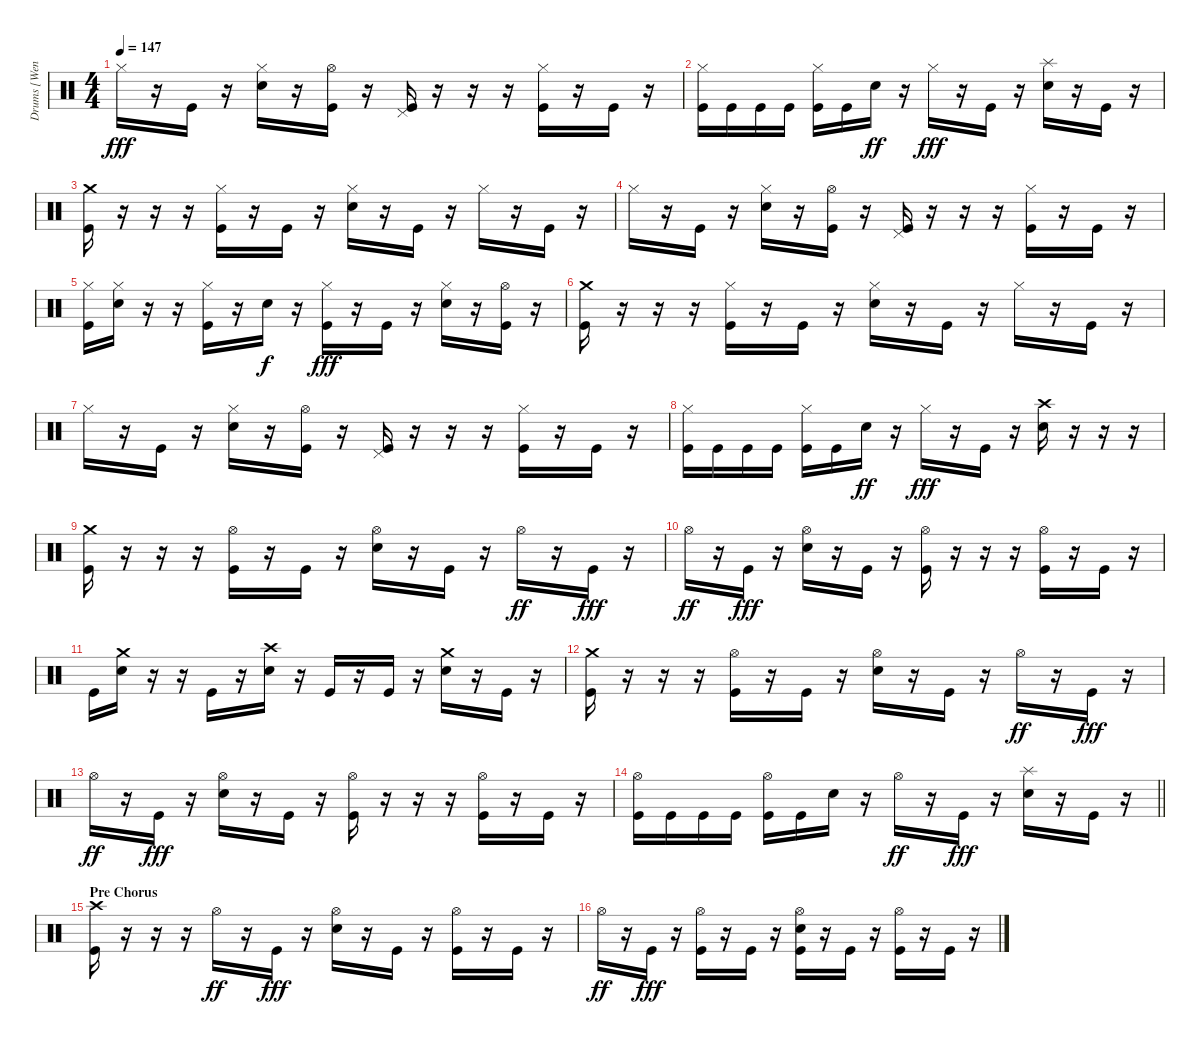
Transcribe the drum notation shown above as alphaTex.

\track ("Drums [Wengren]" "Drums [Wen") {instrument percussion}
\staff {score}
\articulation defaults
\ts (4 4)
\tempo 147
\clef neutral
\ks c "Hi-Hat (closed)".16{dy fff}
r.16 "Kick (hit)".16 r.16 ("Hi-Hat (closed)" "Snare (hit) 2").16 r.16 ("Hi-Hat (open)" "Kick (hit)").16 r.16 ("Pedal Hi-Hat (hit)" "Kick (hit)").16 r.16 r.16 r.16 ("Hi-Hat (closed)" "Kick (hit)").16 r.16 "Kick (hit)".16 r.16 |
("Hi-Hat (closed)" "Kick (hit)").16 "Kick (hit)".16 "Kick (hit)".16 "Kick (hit)".16 ("Hi-Hat (closed)" "Kick (hit)").16 "Kick (hit)".16 "Snare (hit) 2".16{dy ff} r.16 "Hi-Hat (closed)".16{dy fff} r.16 "Kick (hit)".16 r.16 ("Splash (hit)" "Snare (hit) 2").16 r.16 "Kick (hit)".16 r.16 |
("Crash medium (hit)" "Kick (hit)").16 r.16 r.16 r.16 ("Hi-Hat (closed)" "Kick (hit)").16 r.16 "Kick (hit)".16 r.16 ("Hi-Hat (closed)" "Snare (hit) 2").16 r.16 "Kick (hit)".16 r.16 "Hi-Hat (closed)".16 r.16 "Kick (hit)".16 r.16 |
"Hi-Hat (closed)".16 r.16 "Kick (hit)".16 r.16 ("Hi-Hat (closed)" "Snare (hit) 2").16 r.16 ("Hi-Hat (open)" "Kick (hit)").16 r.16 ("Pedal Hi-Hat (hit)" "Kick (hit)").16 r.16 r.16 r.16 ("Hi-Hat (closed)" "Kick (hit)").16 r.16 "Kick (hit)".16 r.16 |
("Hi-Hat (closed)" "Kick (hit)").16 ("Hi-Hat (closed)" "Snare (hit) 2").16 r.16 r.16 ("Hi-Hat (closed)" "Kick (hit)").16 r.16 "Snare (hit) 2".16{dy f} r.16 ("Hi-Hat (closed)" "Kick (hit)").16{dy fff} r.16 "Kick (hit)".16 r.16 ("Hi-Hat (closed)" "Snare (hit) 2").16 r.16 ("Hi-Hat (open)" "Kick (hit)").16 r.16 |
("Crash medium (hit)" "Kick (hit)").16 r.16 r.16 r.16 ("Hi-Hat (closed)" "Kick (hit)").16 r.16 "Kick (hit)".16 r.16 ("Hi-Hat (closed)" "Snare (hit) 2").16 r.16 "Kick (hit)".16 r.16 "Hi-Hat (closed)".16 r.16 "Kick (hit)".16 r.16 |
"Hi-Hat (closed)".16 r.16 "Kick (hit)".16 r.16 ("Hi-Hat (closed)" "Snare (hit) 2").16 r.16 ("Hi-Hat (open)" "Kick (hit)").16 r.16 ("Pedal Hi-Hat (hit)" "Kick (hit)").16 r.16 r.16 r.16 ("Hi-Hat (closed)" "Kick (hit)").16 r.16 "Kick (hit)".16 r.16 |
("Hi-Hat (closed)" "Kick (hit)").16 "Kick (hit)".16 "Kick (hit)".16 "Kick (hit)".16 ("Hi-Hat (closed)" "Kick (hit)").16 "Kick (hit)".16 "Snare (hit) 2".16{dy ff} r.16 "Hi-Hat (closed)".16{dy fff} r.16 "Kick (hit)".16 r.16 ("Crash high (hit)" "Snare (hit) 2").16 r.16 r.16 r.16 |
("Crash medium (hit)" "Kick (hit)").16 r.16 r.16 r.16 ("Hi-Hat (open)" "Kick (hit)").16 r.16 "Kick (hit)".16 r.16 ("Hi-Hat (open)" "Snare (hit) 2").16 r.16 "Kick (hit)".16 r.16 "Hi-Hat (open)".16{dy ff} r.16 "Kick (hit)".16{dy fff} r.16 |
"Hi-Hat (open)".16{dy ff} r.16 "Kick (hit)".16{dy fff} r.16 ("Hi-Hat (open)" "Snare (hit) 2").16 r.16 "Kick (hit)".16 r.16 ("Hi-Hat (open)" "Kick (hit)").16 r.16 r.16 r.16 ("Hi-Hat (open)" "Kick (hit)").16 r.16 "Kick (hit)".16 r.16 |
"Kick (hit)".16 ("Crash medium (hit)" "Snare (hit) 2").16 r.16 r.16 "Kick (hit)".16 r.16 ("Crash high (hit)" "Snare (hit) 2").16 r.16 "Kick (hit)".16 r.16 "Kick (hit)".16 r.16 ("Crash medium (hit)" "Snare (hit) 2").16 r.16 "Kick (hit)".16 r.16 |
("Crash medium (hit)" "Kick (hit)").16 r.16 r.16 r.16 ("Hi-Hat (open)" "Kick (hit)").16 r.16 "Kick (hit)".16 r.16 ("Hi-Hat (open)" "Snare (hit) 2").16 r.16 "Kick (hit)".16 r.16 "Hi-Hat (open)".16{dy ff} r.16 "Kick (hit)".16{dy fff} r.16 |
"Hi-Hat (open)".16{dy ff} r.16 "Kick (hit)".16{dy fff} r.16 ("Hi-Hat (open)" "Snare (hit) 2").16 r.16 "Kick (hit)".16 r.16 ("Hi-Hat (open)" "Kick (hit)").16 r.16 r.16 r.16 ("Hi-Hat (open)" "Kick (hit)").16 r.16 "Kick (hit)".16 r.16 |
\barLineRight lightlight
("Hi-Hat (open)" "Kick (hit)").16 "Kick (hit)".16 "Kick (hit)".16 "Kick (hit)".16 ("Hi-Hat (open)" "Kick (hit)").16 "Kick (hit)".16 "Snare (hit) 2".16 r.16 "Hi-Hat (open)".16{dy ff} r.16 "Kick (hit)".16{dy fff} r.16 ("Splash (hit)" "Snare (hit) 2").16 r.16 "Kick (hit)".16 r.16 |
\section ("" "Pre Chorus")
("Crash high (hit)" "Kick (hit)").16 r.16 r.16 r.16 "Hi-Hat (open)".16{dy ff} r.16 "Kick (hit)".16{dy fff} r.16 ("Hi-Hat (open)" "Snare (hit) 2").16 r.16 "Kick (hit)".16 r.16 ("Hi-Hat (open)" "Kick (hit)").16 r.16 "Kick (hit)".16 r.16 |
"Hi-Hat (open)".16{dy ff} r.16 "Kick (hit)".16{dy fff} r.16 ("Hi-Hat (open)" "Kick (hit)").16 r.16 "Kick (hit)".16 r.16 ("Hi-Hat (open)" "Snare (hit) 2" "Kick (hit)").16 r.16 "Kick (hit)".16 r.16 ("Hi-Hat (open)" "Kick (hit)").16 r.16 "Kick (hit)".16 r.16
